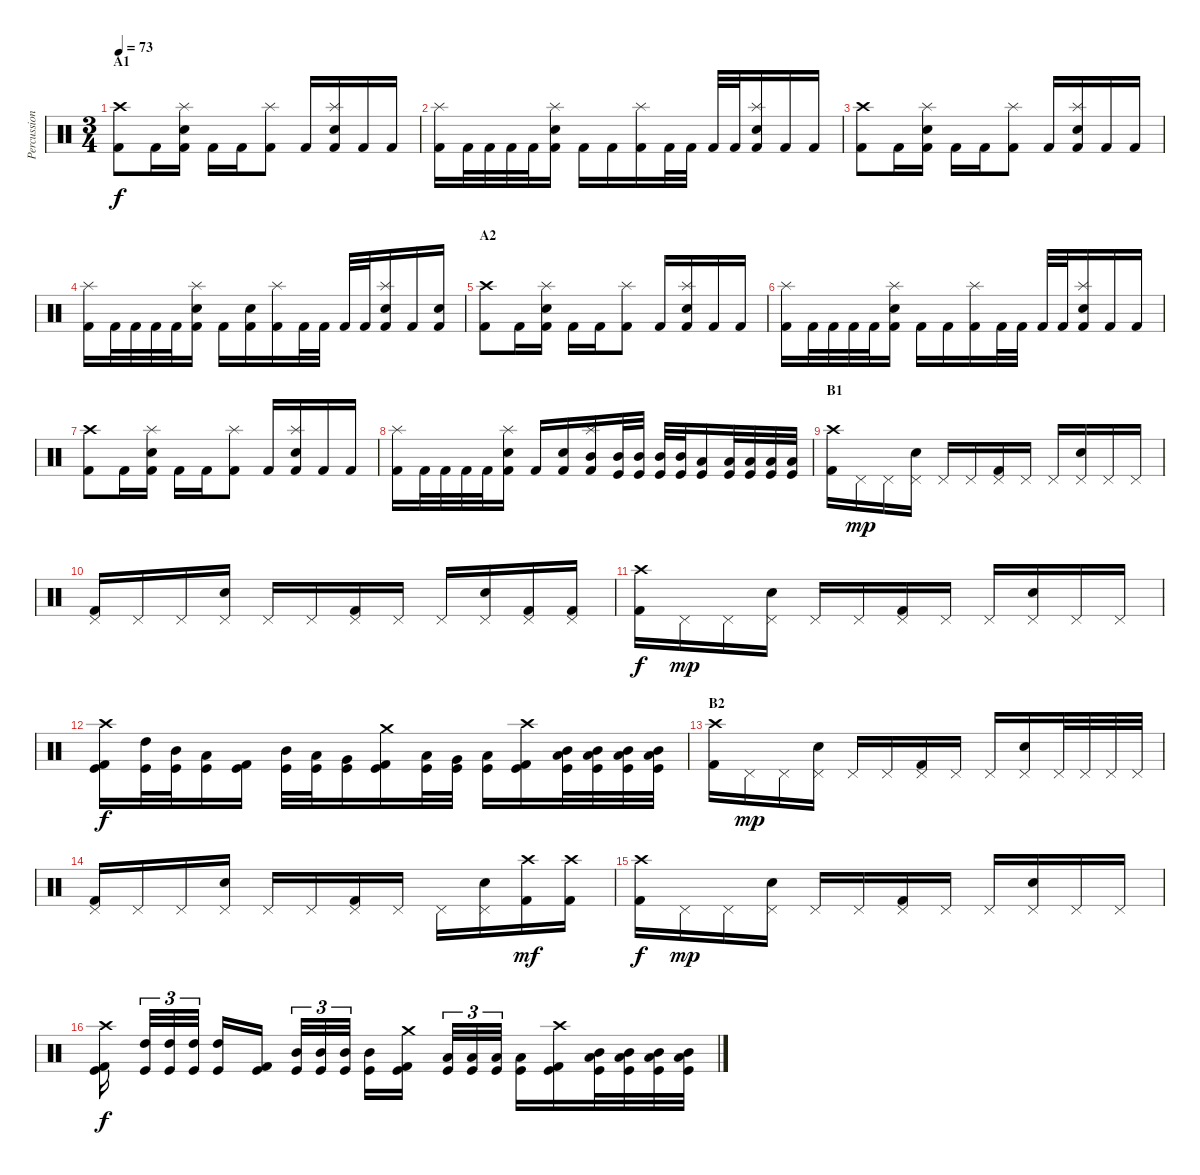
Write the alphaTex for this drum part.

\track ("Percussion" "Percussion") {instrument percussion}
\staff {score}
\articulation defaults
\ts (3 4)
\section ("" "A1")
\tempo 73
\clef neutral
\ks c
("Crash high (hit)" "Kick (hit) 2").8{dy f} "Kick (hit) 2".16 ("Splash (hit)" "Electric Snare (hit)" "Kick (hit) 2").16 "Kick (hit) 2".16 "Kick (hit) 2".16 ("Splash (hit)" "Kick (hit) 2").8 "Kick (hit) 2".16 ("Splash (hit)" "Electric Snare (hit)" "Kick (hit) 2").16 "Kick (hit) 2".16 "Kick (hit) 2".16 |
("Splash (hit)" "Kick (hit) 2").16 "Kick (hit) 2".32 "Kick (hit) 2".32 "Kick (hit) 2".32 "Kick (hit) 2".32 ("Splash (hit)" "Electric Snare (hit)" "Kick (hit) 2").16 "Kick (hit) 2".16 "Kick (hit) 2".16 ("Splash (hit)" "Kick (hit) 2").16 "Kick (hit) 2".32 "Kick (hit) 2".32 "Kick (hit) 2".32 "Kick (hit) 2".32 ("Splash (hit)" "Electric Snare (hit)" "Kick (hit) 2").16 "Kick (hit) 2".16 "Kick (hit) 2".16 |
("Crash high (hit)" "Kick (hit) 2").8 "Kick (hit) 2".16 ("Splash (hit)" "Electric Snare (hit)" "Kick (hit) 2").16 "Kick (hit) 2".16 "Kick (hit) 2".16 ("Splash (hit)" "Kick (hit) 2").8 "Kick (hit) 2".16 ("Splash (hit)" "Electric Snare (hit)" "Kick (hit) 2").16 "Kick (hit) 2".16 "Kick (hit) 2".16 |
("Splash (hit)" "Kick (hit) 2").16 "Kick (hit) 2".32 "Kick (hit) 2".32 "Kick (hit) 2".32 "Kick (hit) 2".32 ("Splash (hit)" "Electric Snare (hit)" "Kick (hit) 2").16 "Kick (hit) 2".16 ("Electric Snare (hit)" "Kick (hit) 2").16 ("Splash (hit)" "Kick (hit) 2").16 "Kick (hit) 2".32 "Kick (hit) 2".32 "Kick (hit) 2".32 "Kick (hit) 2".32 ("Splash (hit)" "Electric Snare (hit)" "Kick (hit) 2").16 "Kick (hit) 2".16 ("Electric Snare (hit)" "Kick (hit) 2").16 |
\section ("" "A2")
("Crash high (hit)" "Kick (hit) 2").8 "Kick (hit) 2".16 ("Splash (hit)" "Electric Snare (hit)" "Kick (hit) 2").16 "Kick (hit) 2".16 "Kick (hit) 2".16 ("Splash (hit)" "Kick (hit) 2").8 "Kick (hit) 2".16 ("Splash (hit)" "Electric Snare (hit)" "Kick (hit) 2").16 "Kick (hit) 2".16 "Kick (hit) 2".16 |
("Splash (hit)" "Kick (hit) 2").16 "Kick (hit) 2".32 "Kick (hit) 2".32 "Kick (hit) 2".32 "Kick (hit) 2".32 ("Splash (hit)" "Electric Snare (hit)" "Kick (hit) 2").16 "Kick (hit) 2".16 "Kick (hit) 2".16 ("Splash (hit)" "Kick (hit) 2").16 "Kick (hit) 2".32 "Kick (hit) 2".32 "Kick (hit) 2".32 "Kick (hit) 2".32 ("Splash (hit)" "Electric Snare (hit)" "Kick (hit) 2").16 "Kick (hit) 2".16 "Kick (hit) 2".16 |
("Crash high (hit)" "Kick (hit) 2").8 "Kick (hit) 2".16 ("Splash (hit)" "Electric Snare (hit)" "Kick (hit) 2").16 "Kick (hit) 2".16 "Kick (hit) 2".16 ("Splash (hit)" "Kick (hit) 2").8 "Kick (hit) 2".16 ("Splash (hit)" "Electric Snare (hit)" "Kick (hit) 2").16 "Kick (hit) 2".16 "Kick (hit) 2".16 |
("Splash (hit)" "Kick (hit) 2").16 "Kick (hit) 2".32 "Kick (hit) 2".32 "Kick (hit) 2".32 "Kick (hit) 2".32 ("Splash (hit)" "Electric Snare (hit)" "Kick (hit) 2").16 "Kick (hit) 2".16 ("Electric Snare (hit)" "Kick (hit) 2").16 ("Splash (hit)" "Mid Tom (hit)" "Kick (hit) 2").16 ("Mid Tom (hit)" "Kick (hit)").32 ("Mid Tom (hit)" "Kick (hit)").32 ("Mid Tom (hit)" "Kick (hit)").32 ("Mid Tom (hit)" "Kick (hit)").32 ("Low Tom (hit)" "Kick (hit)").16 ("Low Tom (hit)" "Kick (hit)").32 ("Low Tom (hit)" "Kick (hit)").32 ("Low Tom (hit)" "Kick (hit)").32 ("Low Tom (hit)" "Kick (hit)").32 |
\section ("" "B1")
("Crash high (hit)" "Kick (hit) 2").16 "Pedal Hi-Hat (hit)".16{dy mp} "Pedal Hi-Hat (hit)".16 ("Pedal Hi-Hat (hit)" "Electric Snare (hit)").16 "Pedal Hi-Hat (hit)".16 "Pedal Hi-Hat (hit)".16 ("Pedal Hi-Hat (hit)" "Kick (hit) 2").16 "Pedal Hi-Hat (hit)".16 "Pedal Hi-Hat (hit)".16 ("Pedal Hi-Hat (hit)" "Electric Snare (hit)").16 "Pedal Hi-Hat (hit)".16 "Pedal Hi-Hat (hit)".16 |
("Pedal Hi-Hat (hit)" "Kick (hit) 2").16 "Pedal Hi-Hat (hit)".16 "Pedal Hi-Hat (hit)".16 ("Pedal Hi-Hat (hit)" "Electric Snare (hit)").16 "Pedal Hi-Hat (hit)".16 "Pedal Hi-Hat (hit)".16 ("Pedal Hi-Hat (hit)" "Kick (hit) 2").16 "Pedal Hi-Hat (hit)".16 "Pedal Hi-Hat (hit)".16 ("Pedal Hi-Hat (hit)" "Electric Snare (hit)").16 ("Pedal Hi-Hat (hit)" "Kick (hit) 2").16 ("Pedal Hi-Hat (hit)" "Kick (hit) 2").16 |
("Crash high (hit)" "Kick (hit) 2").16{dy f} "Pedal Hi-Hat (hit)".16{dy mp} "Pedal Hi-Hat (hit)".16 ("Pedal Hi-Hat (hit)" "Electric Snare (hit)").16 "Pedal Hi-Hat (hit)".16 "Pedal Hi-Hat (hit)".16 ("Pedal Hi-Hat (hit)" "Kick (hit) 2").16 "Pedal Hi-Hat (hit)".16 "Pedal Hi-Hat (hit)".16 ("Pedal Hi-Hat (hit)" "Electric Snare (hit)").16 "Pedal Hi-Hat (hit)".16 "Pedal Hi-Hat (hit)".16 |
("Crash high (hit)" "Kick (hit) 2" "Kick (hit)").16{dy f} ("High Tom (hit)" "Kick (hit)").32 ("Mid Tom (hit)" "Kick (hit)").32 ("Low Tom (hit)" "Kick (hit)").16 ("Kick (hit) 2" "Kick (hit)").16 ("Mid Tom (hit)" "Kick (hit)").32 ("Low Tom (hit)" "Kick (hit)").32 ("Very Low Tom (hit)" "Kick (hit)").16 ("Crash medium (hit)" "Kick (hit) 2" "Kick (hit)").16 ("Low Tom (hit)" "Kick (hit)").32 ("Very Low Tom (hit)" "Kick (hit)").32 ("Low Floor Tom (hit)" "Kick (hit)").16 ("Crash high (hit)" "Kick (hit) 2" "Kick (hit)").16 ("Mid Tom (hit)" "Low Tom (hit)" "Kick (hit)").32 ("Mid Tom (hit)" "Low Tom (hit)" "Kick (hit)").32 ("Mid Tom (hit)" "Low Tom (hit)" "Kick (hit)").32 ("Mid Tom (hit)" "Low Tom (hit)" "Kick (hit)").32 |
\section ("" "B2")
("Crash high (hit)" "Kick (hit) 2").16 "Pedal Hi-Hat (hit)".16{dy mp} "Pedal Hi-Hat (hit)".16 ("Pedal Hi-Hat (hit)" "Electric Snare (hit)").16 "Pedal Hi-Hat (hit)".16 "Pedal Hi-Hat (hit)".16 ("Pedal Hi-Hat (hit)" "Kick (hit) 2").16 "Pedal Hi-Hat (hit)".16 "Pedal Hi-Hat (hit)".16 ("Pedal Hi-Hat (hit)" "Electric Snare (hit)").16 "Pedal Hi-Hat (hit)".32 "Pedal Hi-Hat (hit)".32 "Pedal Hi-Hat (hit)".32 "Pedal Hi-Hat (hit)".32 |
("Pedal Hi-Hat (hit)" "Kick (hit) 2").16 "Pedal Hi-Hat (hit)".16 "Pedal Hi-Hat (hit)".16 ("Pedal Hi-Hat (hit)" "Electric Snare (hit)").16 "Pedal Hi-Hat (hit)".16 "Pedal Hi-Hat (hit)".16 ("Pedal Hi-Hat (hit)" "Kick (hit) 2").16 "Pedal Hi-Hat (hit)".16 "Pedal Hi-Hat (hit)".16 ("Pedal Hi-Hat (hit)" "Electric Snare (hit)").16 ("Crash high (hit)" "Kick (hit) 2").16{dy mf} ("Crash high (hit)" "Kick (hit) 2").16 |
("Crash high (hit)" "Kick (hit) 2").16{dy f} "Pedal Hi-Hat (hit)".16{dy mp} "Pedal Hi-Hat (hit)".16 ("Pedal Hi-Hat (hit)" "Electric Snare (hit)").16 "Pedal Hi-Hat (hit)".16 "Pedal Hi-Hat (hit)".16 ("Pedal Hi-Hat (hit)" "Kick (hit) 2").16 "Pedal Hi-Hat (hit)".16 "Pedal Hi-Hat (hit)".16 ("Pedal Hi-Hat (hit)" "Electric Snare (hit)").16 "Pedal Hi-Hat (hit)".16 "Pedal Hi-Hat (hit)".16 |
("Crash high (hit)" "Kick (hit) 2" "Kick (hit)").16{dy f} ("High Tom (hit)" "Kick (hit)").32{tu (3 2)} ("High Tom (hit)" "Kick (hit)").32{tu (3 2)} ("High Tom (hit)" "Kick (hit)").32{tu (3 2)} ("High Tom (hit)" "Kick (hit)").16 ("Kick (hit) 2" "Kick (hit)").16 ("Mid Tom (hit)" "Kick (hit)").32{tu (3 2)} ("Mid Tom (hit)" "Kick (hit)").32{tu (3 2)} ("Mid Tom (hit)" "Kick (hit)").32{tu (3 2)} ("Mid Tom (hit)" "Kick (hit)").16 ("Crash medium (hit)" "Kick (hit) 2" "Kick (hit)").16 ("Low Tom (hit)" "Kick (hit)").32{tu (3 2)} ("Low Tom (hit)" "Kick (hit)").32{tu (3 2)} ("Low Tom (hit)" "Kick (hit)").32{tu (3 2)} ("Low Tom (hit)" "Kick (hit)").16 ("Crash high (hit)" "Kick (hit) 2" "Kick (hit)").16 ("Mid Tom (hit)" "Low Tom (hit)" "Kick (hit)").32 ("Mid Tom (hit)" "Low Tom (hit)" "Kick (hit)").32 ("Mid Tom (hit)" "Low Tom (hit)" "Kick (hit)").32 ("Mid Tom (hit)" "Low Tom (hit)" "Kick (hit)").32
